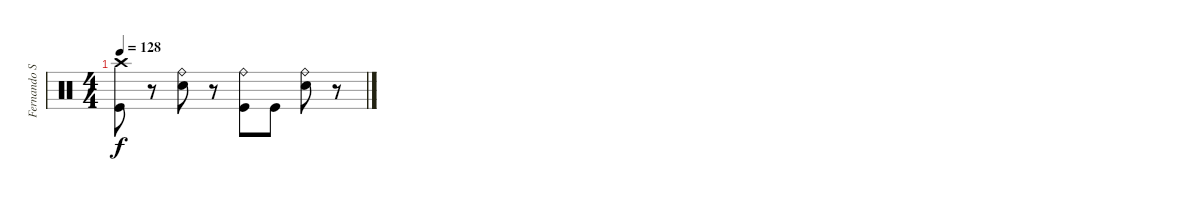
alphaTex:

\track ("Fernando Scarcella" "Fernando S") {instrument percussion}
\staff {score}
\articulation defaults
\ts (4 4)
\tempo 128
\clef neutral
\ks c
("Kick (hit)" "Crash high (hit)").8{dy f} r.8 ("Snare (hit) 2" "Ride (bell)").8 r.8 ("Kick (hit)" "Ride (bell)").8 "Kick (hit)".8 ("Snare (hit) 2" "Ride (bell)").8 r.8
